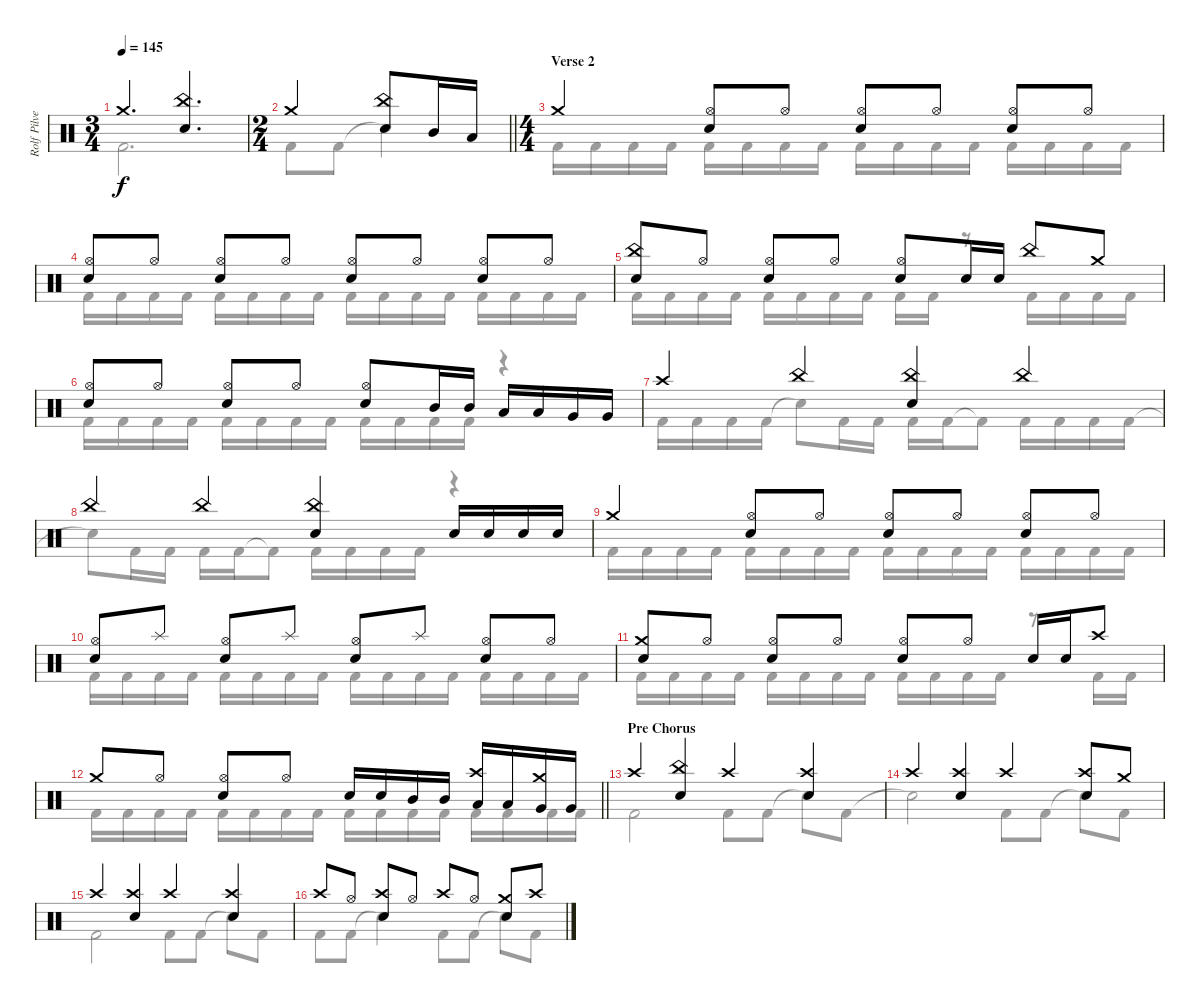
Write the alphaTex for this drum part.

\track ("Rolf Pilve - drums" "Rolf Pilve") {instrument percussion}
\staff {score}
\articulation defaults
\voice
\ts (3 4)
\tempo 145
\clef neutral
\ks aminor "Crash medium (hit)".4{d dy f}
("China (hit)" "Electric Snare (hit)").4{d} |
\ts (2 4)
\barLineRight lightlight "Crash medium (hit)".4
("China (hit)" "Electric Snare (hit)").8 "Mid Tom (hit)".16 "Low Tom (hit)".16 |
\ts (4 4)
\section ("" "Verse 2")
"Crash medium (hit)".4 ("Electric Snare (hit)" "Hi-Hat (open)").8 "Hi-Hat (open)".8 ("Electric Snare (hit)" "Hi-Hat (open)").8 "Hi-Hat (open)".8 ("Electric Snare (hit)" "Hi-Hat (open)").8 "Hi-Hat (open)".8 |
("Electric Snare (hit)" "Hi-Hat (open)").8 "Hi-Hat (open)".8 ("Electric Snare (hit)" "Hi-Hat (open)").8 "Hi-Hat (open)".8 ("Electric Snare (hit)" "Hi-Hat (open)").8 "Hi-Hat (open)".8 ("Electric Snare (hit)" "Hi-Hat (open)").8 "Hi-Hat (open)".8 |
("Electric Snare (hit)" "China (hit)").8 "Hi-Hat (open)".8 ("Electric Snare (hit)" "Hi-Hat (open)").8 "Hi-Hat (open)".8 ("Electric Snare (hit)" "Hi-Hat (open)").8 "Electric Snare (hit)".16 "Electric Snare (hit)".16 "China (hit)".8 "Crash medium (hit)".8 |
("Electric Snare (hit)" "Hi-Hat (open)").8 "Hi-Hat (open)".8 ("Electric Snare (hit)" "Hi-Hat (open)").8 "Hi-Hat (open)".8 ("Electric Snare (hit)" "Hi-Hat (open)").8 "Mid Tom (hit)".16 "Mid Tom (hit)".16 "Low Tom (hit)".16 "Low Tom (hit)".16 "Very Low Tom (hit)".16 "Very Low Tom (hit)".16 |
"Crash high (hit)".4 "China (hit)".4 ("China (hit)" "Electric Snare (hit)").4 "China (hit)".4 |
"China (hit)".4 "China (hit)".4 ("China (hit)" "Electric Snare (hit)").4 "Electric Snare (hit)".16 "Electric Snare (hit)".16 "Electric Snare (hit)".16 "Electric Snare (hit)".16 |
"Crash medium (hit)".4 ("Electric Snare (hit)" "Hi-Hat (open)").8 "Hi-Hat (open)".8 ("Electric Snare (hit)" "Hi-Hat (open)").8 "Hi-Hat (open)".8 ("Electric Snare (hit)" "Hi-Hat (open)").8 "Hi-Hat (open)".8 |
("Electric Snare (hit)" "Hi-Hat (open)").8 "Splash (hit)".8 ("Electric Snare (hit)" "Hi-Hat (open)").8 "Splash (hit)".8 ("Electric Snare (hit)" "Hi-Hat (open)").8 "Splash (hit)".8 ("Electric Snare (hit)" "Hi-Hat (open)").8 "Hi-Hat (open)".8 |
("Crash medium (hit)" "Electric Snare (hit)").8 "Hi-Hat (open)".8 ("Electric Snare (hit)" "Hi-Hat (open)").8 "Hi-Hat (open)".8 ("Electric Snare (hit)" "Hi-Hat (open)").8 "Hi-Hat (open)".8 "Electric Snare (hit)".16 "Electric Snare (hit)".16 "Crash high (hit)".8 |
\barLineRight lightlight "Crash medium (hit)".8 "Hi-Hat (open)".8
("Electric Snare (hit)" "Hi-Hat (open)").8 "Hi-Hat (open)".8 "Electric Snare (hit)".16 "Electric Snare (hit)".16 "Mid Tom (hit)".16 "Mid Tom (hit)".16 ("Crash high (hit)" "Low Tom (hit)").16 "Low Tom (hit)".16 ("Crash medium (hit)" "Very Low Tom (hit)").16 "Very Low Tom (hit)".16 |
\section ("" "Pre Chorus")
"Crash high (hit)".4 ("China (hit)" "Electric Snare (hit)").4 "Crash high (hit)".4 ("Crash high (hit)" "Electric Snare (hit)").4 |
"Crash high (hit)".4 ("Crash high (hit)" "Electric Snare (hit)").4 "Crash high (hit)".4 ("Crash high (hit)" "Electric Snare (hit)").8 "Crash medium (hit)".8 |
"Crash high (hit)".4 ("Crash high (hit)" "Electric Snare (hit)").4 "Crash high (hit)".4 ("Crash high (hit)" "Electric Snare (hit)").4 |
"Crash high (hit)".8 "Hi-Hat (open)".8 ("Crash high (hit)" "Electric Snare (hit)").8 "Hi-Hat (open)".8 "Crash high (hit)".8 "Hi-Hat (open)".8 ("Crash medium (hit)" "Electric Snare (hit)").8 "Crash high (hit)".8
\voice
\clef neutral
\ottava regular
\simile none
\ks aminor "Kick (hit) 2".2{d dy f}
|
\barLineRight lightlight "Kick (hit) 2".8 "Kick (hit) 2".8 "Snare (hit)"{t}.4
|
"Kick (hit) 2".16 "Kick (hit) 2".16 "Kick (hit) 2".16 "Kick (hit) 2".16 "Kick (hit) 2".16 "Kick (hit) 2".16 "Kick (hit) 2".16 "Kick (hit) 2".16 "Kick (hit) 2".16 "Kick (hit) 2".16 "Kick (hit) 2".16 "Kick (hit) 2".16 "Kick (hit) 2".16 "Kick (hit) 2".16 "Kick (hit) 2".16 "Kick (hit) 2".16 |
"Kick (hit) 2".16 "Kick (hit) 2".16 "Kick (hit) 2".16 "Kick (hit) 2".16 "Kick (hit) 2".16 "Kick (hit) 2".16 "Kick (hit) 2".16 "Kick (hit) 2".16 "Kick (hit) 2".16 "Kick (hit) 2".16 "Kick (hit) 2".16 "Kick (hit) 2".16 "Kick (hit) 2".16 "Kick (hit) 2".16 "Kick (hit) 2".16 "Kick (hit) 2".16 |
"Kick (hit) 2".16 "Kick (hit) 2".16 "Kick (hit) 2".16 "Kick (hit) 2".16 "Kick (hit) 2".16 "Kick (hit) 2".16 "Kick (hit) 2".16 "Kick (hit) 2".16 "Kick (hit) 2".16 "Kick (hit) 2".16 r.8 "Kick (hit) 2".16 "Kick (hit) 2".16 "Kick (hit) 2".16 "Kick (hit) 2".16 |
"Kick (hit) 2".16 "Kick (hit) 2".16 "Kick (hit) 2".16 "Kick (hit) 2".16 "Kick (hit) 2".16 "Kick (hit) 2".16 "Kick (hit) 2".16 "Kick (hit) 2".16 "Kick (hit) 2".16 "Kick (hit) 2".16 "Kick (hit) 2".16 "Kick (hit) 2".16 r.4 |
"Kick (hit) 2".16 "Kick (hit) 2".16 "Kick (hit) 2".16 "Kick (hit) 2".16 "Snare (hit)"{t}.8 "Kick (hit) 2".16 "Kick (hit) 2".16 "Kick (hit) 2".16 "Kick (hit) 2".16 "Kick (hit) 2"{t}.8 "Kick (hit) 2".16 "Kick (hit) 2".16 "Kick (hit) 2".16 "Kick (hit) 2".16 |
"Snare (hit)"{t}.8 "Kick (hit) 2".16 "Kick (hit) 2".16 "Kick (hit) 2".16 "Kick (hit) 2".16 "Kick (hit) 2"{t}.8 "Kick (hit) 2".16 "Kick (hit) 2".16 "Kick (hit) 2".16 "Kick (hit) 2".16 r.4 |
"Kick (hit) 2".16 "Kick (hit) 2".16 "Kick (hit) 2".16 "Kick (hit) 2".16 "Kick (hit) 2".16 "Kick (hit) 2".16 "Kick (hit) 2".16 "Kick (hit) 2".16 "Kick (hit) 2".16 "Kick (hit) 2".16 "Kick (hit) 2".16 "Kick (hit) 2".16 "Kick (hit) 2".16 "Kick (hit) 2".16 "Kick (hit) 2".16 "Kick (hit) 2".16 |
"Kick (hit) 2".16 "Kick (hit) 2".16 "Kick (hit) 2".16 "Kick (hit) 2".16 "Kick (hit) 2".16 "Kick (hit) 2".16 "Kick (hit) 2".16 "Kick (hit) 2".16 "Kick (hit) 2".16 "Kick (hit) 2".16 "Kick (hit) 2".16 "Kick (hit) 2".16 "Kick (hit) 2".16 "Kick (hit) 2".16 "Kick (hit) 2".16 "Kick (hit) 2".16 |
"Kick (hit) 2".16 "Kick (hit) 2".16 "Kick (hit) 2".16 "Kick (hit) 2".16 "Kick (hit) 2".16 "Kick (hit) 2".16 "Kick (hit) 2".16 "Kick (hit) 2".16 "Kick (hit) 2".16 "Kick (hit) 2".16 "Kick (hit) 2".16 "Kick (hit) 2".16 r.8 "Kick (hit) 2".16 "Kick (hit) 2".16 |
\barLineRight lightlight "Kick (hit) 2".16 "Kick (hit) 2".16 "Kick (hit) 2".16 "Kick (hit) 2".16 "Kick (hit) 2".16 "Kick (hit) 2".16 "Kick (hit) 2".16 "Kick (hit) 2".16 "Kick (hit) 2".16 "Kick (hit) 2".16 "Kick (hit) 2".16 "Kick (hit) 2".16 "Kick (hit) 2".16 "Kick (hit) 2".16 "Kick (hit) 2".16 "Kick (hit) 2".16
|
"Kick (hit) 2".2 "Kick (hit) 2".8 "Kick (hit) 2".8 "Snare (hit)"{t}.8 "Kick (hit) 2".8 |
"Snare (hit)"{t}.2 "Kick (hit) 2".8 "Kick (hit) 2".8 "Snare (hit)"{t}.8 "Kick (hit) 2".8 |
"Kick (hit) 2".2 "Kick (hit) 2".8 "Kick (hit) 2".8 "Snare (hit)"{t}.8 "Kick (hit) 2".8 |
"Kick (hit) 2".8 "Kick (hit) 2".8 "Snare (hit)"{t}.4 "Kick (hit) 2".8 "Kick (hit) 2".8 "Snare (hit)"{t}.8 "Kick (hit) 2".8
